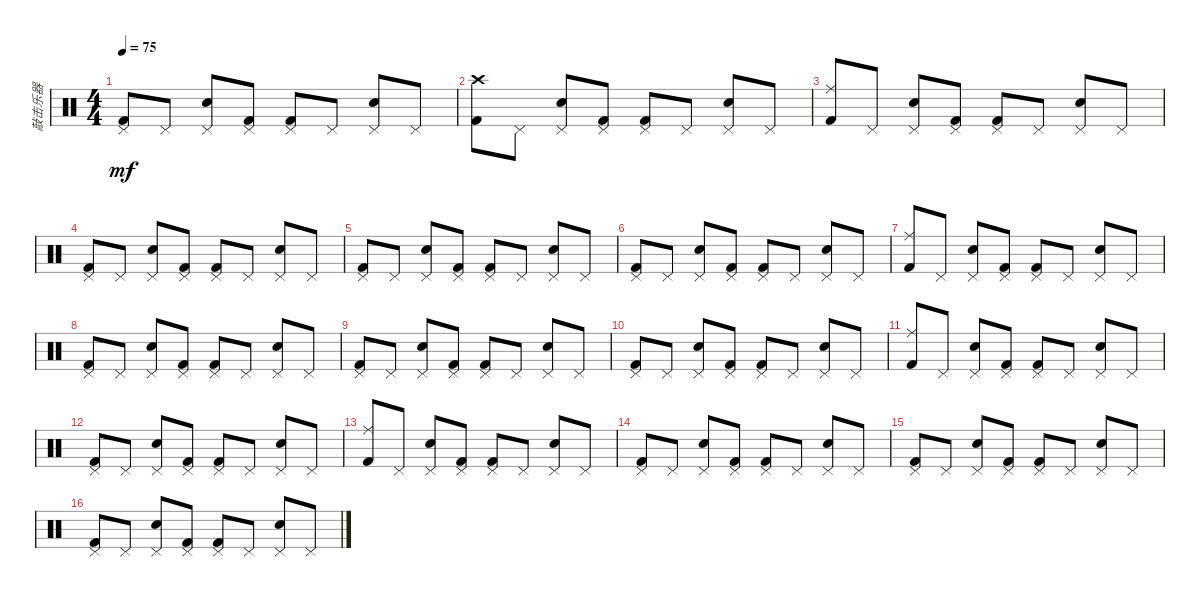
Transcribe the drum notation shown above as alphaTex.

\track ("敲击乐器" "敲击乐器") {instrument percussion}
\staff {score}
\articulation defaults
\ts (4 4)
\tempo 75
\clef neutral
\ks c
("Pedal Hi-Hat (hit)" "Kick (hit) 2").8{dy mf} "Pedal Hi-Hat (hit)".8 ("Pedal Hi-Hat (hit)" "Electric Snare (hit)").8 ("Pedal Hi-Hat (hit)" "Kick (hit) 2").8 ("Pedal Hi-Hat (hit)" "Kick (hit) 2").8 "Pedal Hi-Hat (hit)".8 ("Pedal Hi-Hat (hit)" "Electric Snare (hit)").8 "Pedal Hi-Hat (hit)".8 |
("Crash high (hit)" "Kick (hit) 2").8 "Pedal Hi-Hat (hit)".8 ("Pedal Hi-Hat (hit)" "Electric Snare (hit)").8 ("Pedal Hi-Hat (hit)" "Kick (hit) 2").8 ("Pedal Hi-Hat (hit)" "Kick (hit) 2").8 "Pedal Hi-Hat (hit)".8 ("Pedal Hi-Hat (hit)" "Electric Snare (hit)").8 "Pedal Hi-Hat (hit)".8 |
("Ride (middle)" "Kick (hit) 2").8 "Pedal Hi-Hat (hit)".8 ("Pedal Hi-Hat (hit)" "Electric Snare (hit)").8 ("Pedal Hi-Hat (hit)" "Kick (hit) 2").8 ("Pedal Hi-Hat (hit)" "Kick (hit) 2").8 "Pedal Hi-Hat (hit)".8 ("Pedal Hi-Hat (hit)" "Electric Snare (hit)").8 "Pedal Hi-Hat (hit)".8 |
("Pedal Hi-Hat (hit)" "Kick (hit) 2").8 "Pedal Hi-Hat (hit)".8 ("Pedal Hi-Hat (hit)" "Electric Snare (hit)").8 ("Pedal Hi-Hat (hit)" "Kick (hit) 2").8 ("Pedal Hi-Hat (hit)" "Kick (hit) 2").8 "Pedal Hi-Hat (hit)".8 ("Pedal Hi-Hat (hit)" "Electric Snare (hit)").8 "Pedal Hi-Hat (hit)".8 |
("Pedal Hi-Hat (hit)" "Kick (hit) 2").8 "Pedal Hi-Hat (hit)".8 ("Pedal Hi-Hat (hit)" "Electric Snare (hit)").8 ("Pedal Hi-Hat (hit)" "Kick (hit) 2").8 ("Pedal Hi-Hat (hit)" "Kick (hit) 2").8 "Pedal Hi-Hat (hit)".8 ("Pedal Hi-Hat (hit)" "Electric Snare (hit)").8 "Pedal Hi-Hat (hit)".8 |
("Pedal Hi-Hat (hit)" "Kick (hit) 2").8 "Pedal Hi-Hat (hit)".8 ("Pedal Hi-Hat (hit)" "Electric Snare (hit)").8 ("Pedal Hi-Hat (hit)" "Kick (hit) 2").8 ("Pedal Hi-Hat (hit)" "Kick (hit) 2").8 "Pedal Hi-Hat (hit)".8 ("Pedal Hi-Hat (hit)" "Electric Snare (hit)").8 "Pedal Hi-Hat (hit)".8 |
("Ride (middle)" "Kick (hit) 2").8 "Pedal Hi-Hat (hit)".8 ("Pedal Hi-Hat (hit)" "Electric Snare (hit)").8 ("Pedal Hi-Hat (hit)" "Kick (hit) 2").8 ("Pedal Hi-Hat (hit)" "Kick (hit) 2").8 "Pedal Hi-Hat (hit)".8 ("Pedal Hi-Hat (hit)" "Electric Snare (hit)").8 "Pedal Hi-Hat (hit)".8 |
("Pedal Hi-Hat (hit)" "Kick (hit) 2").8 "Pedal Hi-Hat (hit)".8 ("Pedal Hi-Hat (hit)" "Electric Snare (hit)").8 ("Pedal Hi-Hat (hit)" "Kick (hit) 2").8 ("Pedal Hi-Hat (hit)" "Kick (hit) 2").8 "Pedal Hi-Hat (hit)".8 ("Pedal Hi-Hat (hit)" "Electric Snare (hit)").8 "Pedal Hi-Hat (hit)".8 |
("Pedal Hi-Hat (hit)" "Kick (hit) 2").8 "Pedal Hi-Hat (hit)".8 ("Pedal Hi-Hat (hit)" "Electric Snare (hit)").8 ("Pedal Hi-Hat (hit)" "Kick (hit) 2").8 ("Pedal Hi-Hat (hit)" "Kick (hit) 2").8 "Pedal Hi-Hat (hit)".8 ("Pedal Hi-Hat (hit)" "Electric Snare (hit)").8 "Pedal Hi-Hat (hit)".8 |
("Pedal Hi-Hat (hit)" "Kick (hit) 2").8 "Pedal Hi-Hat (hit)".8 ("Pedal Hi-Hat (hit)" "Electric Snare (hit)").8 ("Pedal Hi-Hat (hit)" "Kick (hit) 2").8 ("Pedal Hi-Hat (hit)" "Kick (hit) 2").8 "Pedal Hi-Hat (hit)".8 ("Pedal Hi-Hat (hit)" "Electric Snare (hit)").8 "Pedal Hi-Hat (hit)".8 |
("Ride (middle)" "Kick (hit) 2").8 "Pedal Hi-Hat (hit)".8 ("Pedal Hi-Hat (hit)" "Electric Snare (hit)").8 ("Pedal Hi-Hat (hit)" "Kick (hit) 2").8 ("Pedal Hi-Hat (hit)" "Kick (hit) 2").8 "Pedal Hi-Hat (hit)".8 ("Pedal Hi-Hat (hit)" "Electric Snare (hit)").8 "Pedal Hi-Hat (hit)".8 |
("Pedal Hi-Hat (hit)" "Kick (hit) 2").8 "Pedal Hi-Hat (hit)".8 ("Pedal Hi-Hat (hit)" "Electric Snare (hit)").8 ("Pedal Hi-Hat (hit)" "Kick (hit) 2").8 ("Pedal Hi-Hat (hit)" "Kick (hit) 2").8 "Pedal Hi-Hat (hit)".8 ("Pedal Hi-Hat (hit)" "Electric Snare (hit)").8 "Pedal Hi-Hat (hit)".8 |
("Ride (middle)" "Kick (hit) 2").8 "Pedal Hi-Hat (hit)".8 ("Pedal Hi-Hat (hit)" "Electric Snare (hit)").8 ("Pedal Hi-Hat (hit)" "Kick (hit) 2").8 ("Pedal Hi-Hat (hit)" "Kick (hit) 2").8 "Pedal Hi-Hat (hit)".8 ("Pedal Hi-Hat (hit)" "Electric Snare (hit)").8 "Pedal Hi-Hat (hit)".8 |
("Pedal Hi-Hat (hit)" "Kick (hit) 2").8 "Pedal Hi-Hat (hit)".8 ("Pedal Hi-Hat (hit)" "Electric Snare (hit)").8 ("Pedal Hi-Hat (hit)" "Kick (hit) 2").8 ("Pedal Hi-Hat (hit)" "Kick (hit) 2").8 "Pedal Hi-Hat (hit)".8 ("Pedal Hi-Hat (hit)" "Electric Snare (hit)").8 "Pedal Hi-Hat (hit)".8 |
("Pedal Hi-Hat (hit)" "Kick (hit) 2").8 "Pedal Hi-Hat (hit)".8 ("Pedal Hi-Hat (hit)" "Electric Snare (hit)").8 ("Pedal Hi-Hat (hit)" "Kick (hit) 2").8 ("Pedal Hi-Hat (hit)" "Kick (hit) 2").8 "Pedal Hi-Hat (hit)".8 ("Pedal Hi-Hat (hit)" "Electric Snare (hit)").8 "Pedal Hi-Hat (hit)".8 |
("Pedal Hi-Hat (hit)" "Kick (hit) 2").8 "Pedal Hi-Hat (hit)".8 ("Pedal Hi-Hat (hit)" "Electric Snare (hit)").8 ("Pedal Hi-Hat (hit)" "Kick (hit) 2").8 ("Pedal Hi-Hat (hit)" "Kick (hit) 2").8 "Pedal Hi-Hat (hit)".8 ("Pedal Hi-Hat (hit)" "Electric Snare (hit)").8 "Pedal Hi-Hat (hit)".8
